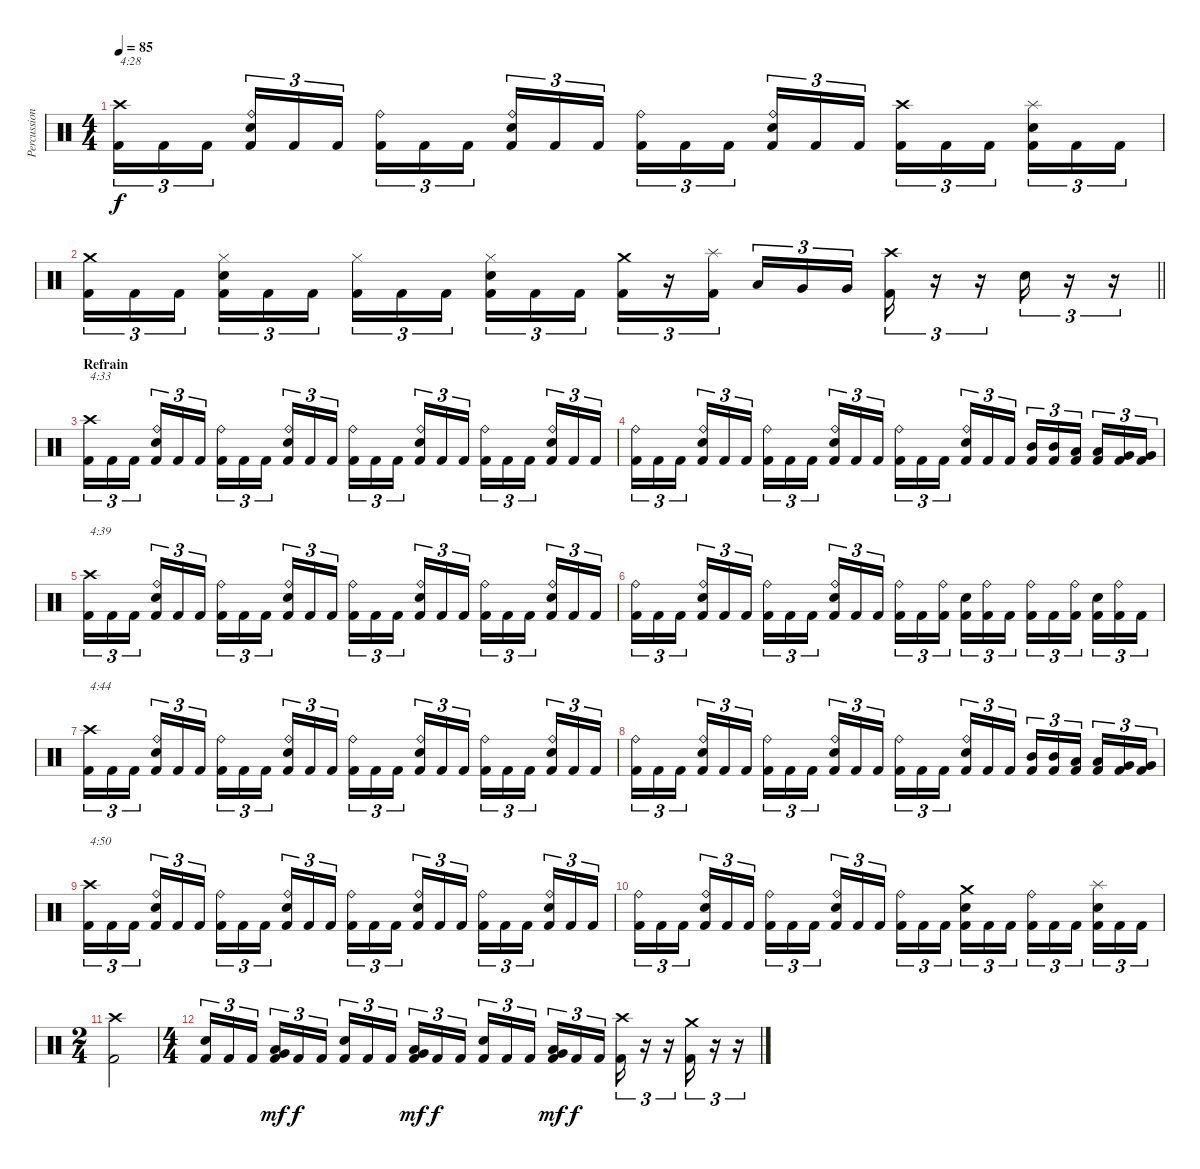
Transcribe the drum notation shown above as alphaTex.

\track ("Percussion" "Percussion") {instrument percussion}
\staff {score}
\articulation defaults
\ts (4 4)
\tempo 85
\clef neutral
\ks c
("Crash high (hit)" "Kick (hit) 2").16{tu (3 2) txt "4:28" dy f} "Kick (hit) 2".16{tu (3 2)} "Kick (hit) 2".16{tu (3 2)} ("Ride (bell)" "Electric Snare (hit)" "Kick (hit) 2").16{tu (3 2)} "Kick (hit) 2".16{tu (3 2)} "Kick (hit) 2".16{tu (3 2)} ("Ride (bell)" "Kick (hit) 2").16{tu (3 2)} "Kick (hit) 2".16{tu (3 2)} "Kick (hit) 2".16{tu (3 2)} ("Ride (bell)" "Electric Snare (hit)" "Kick (hit) 2").16{tu (3 2)} "Kick (hit) 2".16{tu (3 2)} "Kick (hit) 2".16{tu (3 2)} ("Ride (bell)" "Kick (hit) 2").16{tu (3 2)} "Kick (hit) 2".16{tu (3 2)} "Kick (hit) 2".16{tu (3 2)} ("Ride (bell)" "Electric Snare (hit)" "Kick (hit) 2").16{tu (3 2)} "Kick (hit) 2".16{tu (3 2)} "Kick (hit) 2".16{tu (3 2)} ("Crash high (hit)" "Kick (hit) 2").16{tu (3 2)} "Kick (hit) 2".16{tu (3 2)} "Kick (hit) 2".16{tu (3 2)} ("Splash (hit)" "Electric Snare (hit)" "Kick (hit) 2").16{tu (3 2)} "Kick (hit) 2".16{tu (3 2)} "Kick (hit) 2".16{tu (3 2)} |
\barLineRight lightlight
("Crash medium (hit)" "Kick (hit) 2").16{tu (3 2)} "Kick (hit) 2".16{tu (3 2)} "Kick (hit) 2".16{tu (3 2)} ("Hi-Hat (closed)" "Electric Snare (hit)" "Kick (hit) 2").16{tu (3 2)} "Kick (hit) 2".16{tu (3 2)} "Kick (hit) 2".16{tu (3 2)} ("Hi-Hat (closed)" "Kick (hit) 2").16{tu (3 2)} "Kick (hit) 2".16{tu (3 2)} "Kick (hit) 2".16{tu (3 2)} ("Hi-Hat (closed)" "Electric Snare (hit)" "Kick (hit) 2").16{tu (3 2)} "Kick (hit) 2".16{tu (3 2)} "Kick (hit) 2".16{tu (3 2)} ("Crash medium (hit)" "Kick (hit) 2").16{tu (3 2)} r.16{tu (3 2)} ("Splash (hit)" "Kick (hit) 2").16{tu (3 2)} "Low Tom (hit)".16{tu (3 2)} "Very Low Tom (hit)".16{tu (3 2)} "Very Low Tom (hit)".16{tu (3 2)} ("Crash high (hit)" "Kick (hit) 2").16{tu (3 2)} r.16{tu (3 2)} r.16{tu (3 2)} "Electric Snare (hit)".16{tu (3 2)} r.16{tu (3 2)} r.16{tu (3 2)} |
\section ("" "Refrain")
("Crash high (hit)" "Kick (hit) 2").16{tu (3 2) txt "4:33"} "Kick (hit) 2".16{tu (3 2)} "Kick (hit) 2".16{tu (3 2)} ("Ride (bell)" "Electric Snare (hit)" "Kick (hit) 2").16{tu (3 2)} "Kick (hit) 2".16{tu (3 2)} "Kick (hit) 2".16{tu (3 2)} ("Ride (bell)" "Kick (hit) 2").16{tu (3 2)} "Kick (hit) 2".16{tu (3 2)} "Kick (hit) 2".16{tu (3 2)} ("Ride (bell)" "Electric Snare (hit)" "Kick (hit) 2").16{tu (3 2)} "Kick (hit) 2".16{tu (3 2)} "Kick (hit) 2".16{tu (3 2)} ("Ride (bell)" "Kick (hit) 2").16{tu (3 2)} "Kick (hit) 2".16{tu (3 2)} "Kick (hit) 2".16{tu (3 2)} ("Ride (bell)" "Electric Snare (hit)" "Kick (hit) 2").16{tu (3 2)} "Kick (hit) 2".16{tu (3 2)} "Kick (hit) 2".16{tu (3 2)} ("Ride (bell)" "Kick (hit) 2").16{tu (3 2)} "Kick (hit) 2".16{tu (3 2)} "Kick (hit) 2".16{tu (3 2)} ("Ride (bell)" "Electric Snare (hit)" "Kick (hit) 2").16{tu (3 2)} "Kick (hit) 2".16{tu (3 2)} "Kick (hit) 2".16{tu (3 2)} |
("Ride (bell)" "Kick (hit) 2").16{tu (3 2)} "Kick (hit) 2".16{tu (3 2)} "Kick (hit) 2".16{tu (3 2)} ("Ride (bell)" "Electric Snare (hit)" "Kick (hit) 2").16{tu (3 2)} "Kick (hit) 2".16{tu (3 2)} "Kick (hit) 2".16{tu (3 2)} ("Ride (bell)" "Kick (hit) 2").16{tu (3 2)} "Kick (hit) 2".16{tu (3 2)} "Kick (hit) 2".16{tu (3 2)} ("Ride (bell)" "Electric Snare (hit)" "Kick (hit) 2").16{tu (3 2)} "Kick (hit) 2".16{tu (3 2)} "Kick (hit) 2".16{tu (3 2)} ("Ride (bell)" "Kick (hit) 2").16{tu (3 2)} "Kick (hit) 2".16{tu (3 2)} "Kick (hit) 2".16{tu (3 2)} ("Ride (bell)" "Electric Snare (hit)" "Kick (hit) 2").16{tu (3 2)} "Kick (hit) 2".16{tu (3 2)} "Kick (hit) 2".16{tu (3 2)} ("Mid Tom (hit)" "Kick (hit) 2").16{tu (3 2)} ("Mid Tom (hit)" "Kick (hit) 2").16{tu (3 2)} ("Low Tom (hit)" "Kick (hit) 2").16{tu (3 2)} ("Low Tom (hit)" "Kick (hit) 2").16{tu (3 2)} ("Very Low Tom (hit)" "Kick (hit) 2").16{tu (3 2)} ("Very Low Tom (hit)" "Kick (hit) 2").16{tu (3 2)} |
("Crash high (hit)" "Kick (hit) 2").16{tu (3 2) txt "4:39"} "Kick (hit) 2".16{tu (3 2)} "Kick (hit) 2".16{tu (3 2)} ("Ride (bell)" "Electric Snare (hit)" "Kick (hit) 2").16{tu (3 2)} "Kick (hit) 2".16{tu (3 2)} "Kick (hit) 2".16{tu (3 2)} ("Ride (bell)" "Kick (hit) 2").16{tu (3 2)} "Kick (hit) 2".16{tu (3 2)} "Kick (hit) 2".16{tu (3 2)} ("Ride (bell)" "Electric Snare (hit)" "Kick (hit) 2").16{tu (3 2)} "Kick (hit) 2".16{tu (3 2)} "Kick (hit) 2".16{tu (3 2)} ("Ride (bell)" "Kick (hit) 2").16{tu (3 2)} "Kick (hit) 2".16{tu (3 2)} "Kick (hit) 2".16{tu (3 2)} ("Ride (bell)" "Electric Snare (hit)" "Kick (hit) 2").16{tu (3 2)} "Kick (hit) 2".16{tu (3 2)} "Kick (hit) 2".16{tu (3 2)} ("Ride (bell)" "Kick (hit) 2").16{tu (3 2)} "Kick (hit) 2".16{tu (3 2)} "Kick (hit) 2".16{tu (3 2)} ("Ride (bell)" "Electric Snare (hit)" "Kick (hit) 2").16{tu (3 2)} "Kick (hit) 2".16{tu (3 2)} "Kick (hit) 2".16{tu (3 2)} |
("Ride (bell)" "Kick (hit) 2").16{tu (3 2)} "Kick (hit) 2".16{tu (3 2)} "Kick (hit) 2".16{tu (3 2)} ("Ride (bell)" "Electric Snare (hit)" "Kick (hit) 2").16{tu (3 2)} "Kick (hit) 2".16{tu (3 2)} "Kick (hit) 2".16{tu (3 2)} ("Ride (bell)" "Kick (hit) 2").16{tu (3 2)} "Kick (hit) 2".16{tu (3 2)} "Kick (hit) 2".16{tu (3 2)} ("Ride (bell)" "Electric Snare (hit)" "Kick (hit) 2").16{tu (3 2)} "Kick (hit) 2".16{tu (3 2)} "Kick (hit) 2".16{tu (3 2)} ("Ride (bell)" "Kick (hit) 2").16{tu (3 2)} "Kick (hit) 2".16{tu (3 2)} ("Ride (bell)" "Kick (hit) 2").16{tu (3 2)} ("Electric Snare (hit)" "Kick (hit) 2").16{tu (3 2)} ("Ride (bell)" "Kick (hit) 2").16{tu (3 2)} "Kick (hit) 2".16{tu (3 2)} ("Ride (bell)" "Kick (hit) 2").16{tu (3 2)} "Kick (hit) 2".16{tu (3 2)} ("Ride (bell)" "Kick (hit) 2").16{tu (3 2)} ("Electric Snare (hit)" "Kick (hit) 2").16{tu (3 2)} ("Ride (bell)" "Kick (hit) 2").16{tu (3 2)} "Kick (hit) 2".16{tu (3 2)} |
("Crash high (hit)" "Kick (hit) 2").16{tu (3 2) txt "4:44"} "Kick (hit) 2".16{tu (3 2)} "Kick (hit) 2".16{tu (3 2)} ("Ride (bell)" "Electric Snare (hit)" "Kick (hit) 2").16{tu (3 2)} "Kick (hit) 2".16{tu (3 2)} "Kick (hit) 2".16{tu (3 2)} ("Ride (bell)" "Kick (hit) 2").16{tu (3 2)} "Kick (hit) 2".16{tu (3 2)} "Kick (hit) 2".16{tu (3 2)} ("Ride (bell)" "Electric Snare (hit)" "Kick (hit) 2").16{tu (3 2)} "Kick (hit) 2".16{tu (3 2)} "Kick (hit) 2".16{tu (3 2)} ("Ride (bell)" "Kick (hit) 2").16{tu (3 2)} "Kick (hit) 2".16{tu (3 2)} "Kick (hit) 2".16{tu (3 2)} ("Ride (bell)" "Electric Snare (hit)" "Kick (hit) 2").16{tu (3 2)} "Kick (hit) 2".16{tu (3 2)} "Kick (hit) 2".16{tu (3 2)} ("Ride (bell)" "Kick (hit) 2").16{tu (3 2)} "Kick (hit) 2".16{tu (3 2)} "Kick (hit) 2".16{tu (3 2)} ("Ride (bell)" "Electric Snare (hit)" "Kick (hit) 2").16{tu (3 2)} "Kick (hit) 2".16{tu (3 2)} "Kick (hit) 2".16{tu (3 2)} |
("Ride (bell)" "Kick (hit) 2").16{tu (3 2)} "Kick (hit) 2".16{tu (3 2)} "Kick (hit) 2".16{tu (3 2)} ("Ride (bell)" "Electric Snare (hit)" "Kick (hit) 2").16{tu (3 2)} "Kick (hit) 2".16{tu (3 2)} "Kick (hit) 2".16{tu (3 2)} ("Ride (bell)" "Kick (hit) 2").16{tu (3 2)} "Kick (hit) 2".16{tu (3 2)} "Kick (hit) 2".16{tu (3 2)} ("Ride (bell)" "Electric Snare (hit)" "Kick (hit) 2").16{tu (3 2)} "Kick (hit) 2".16{tu (3 2)} "Kick (hit) 2".16{tu (3 2)} ("Ride (bell)" "Kick (hit) 2").16{tu (3 2)} "Kick (hit) 2".16{tu (3 2)} "Kick (hit) 2".16{tu (3 2)} ("Ride (bell)" "Electric Snare (hit)" "Kick (hit) 2").16{tu (3 2)} "Kick (hit) 2".16{tu (3 2)} "Kick (hit) 2".16{tu (3 2)} ("Mid Tom (hit)" "Kick (hit) 2").16{tu (3 2)} ("Mid Tom (hit)" "Kick (hit) 2").16{tu (3 2)} ("Low Tom (hit)" "Kick (hit) 2").16{tu (3 2)} ("Low Tom (hit)" "Kick (hit) 2").16{tu (3 2)} ("Very Low Tom (hit)" "Kick (hit) 2").16{tu (3 2)} ("Very Low Tom (hit)" "Kick (hit) 2").16{tu (3 2)} |
("Crash high (hit)" "Kick (hit) 2").16{tu (3 2) txt "4:50"} "Kick (hit) 2".16{tu (3 2)} "Kick (hit) 2".16{tu (3 2)} ("Ride (bell)" "Electric Snare (hit)" "Kick (hit) 2").16{tu (3 2)} "Kick (hit) 2".16{tu (3 2)} "Kick (hit) 2".16{tu (3 2)} ("Ride (bell)" "Kick (hit) 2").16{tu (3 2)} "Kick (hit) 2".16{tu (3 2)} "Kick (hit) 2".16{tu (3 2)} ("Ride (bell)" "Electric Snare (hit)" "Kick (hit) 2").16{tu (3 2)} "Kick (hit) 2".16{tu (3 2)} "Kick (hit) 2".16{tu (3 2)} ("Ride (bell)" "Kick (hit) 2").16{tu (3 2)} "Kick (hit) 2".16{tu (3 2)} "Kick (hit) 2".16{tu (3 2)} ("Ride (bell)" "Electric Snare (hit)" "Kick (hit) 2").16{tu (3 2)} "Kick (hit) 2".16{tu (3 2)} "Kick (hit) 2".16{tu (3 2)} ("Ride (bell)" "Kick (hit) 2").16{tu (3 2)} "Kick (hit) 2".16{tu (3 2)} "Kick (hit) 2".16{tu (3 2)} ("Ride (bell)" "Electric Snare (hit)" "Kick (hit) 2").16{tu (3 2)} "Kick (hit) 2".16{tu (3 2)} "Kick (hit) 2".16{tu (3 2)} |
("Ride (bell)" "Kick (hit) 2").16{tu (3 2)} "Kick (hit) 2".16{tu (3 2)} "Kick (hit) 2".16{tu (3 2)} ("Ride (bell)" "Electric Snare (hit)" "Kick (hit) 2").16{tu (3 2)} "Kick (hit) 2".16{tu (3 2)} "Kick (hit) 2".16{tu (3 2)} ("Ride (bell)" "Kick (hit) 2").16{tu (3 2)} "Kick (hit) 2".16{tu (3 2)} "Kick (hit) 2".16{tu (3 2)} ("Ride (bell)" "Electric Snare (hit)" "Kick (hit) 2").16{tu (3 2)} "Kick (hit) 2".16{tu (3 2)} "Kick (hit) 2".16{tu (3 2)} ("Ride (bell)" "Kick (hit) 2").16{tu (3 2)} "Kick (hit) 2".16{tu (3 2)} "Kick (hit) 2".16{tu (3 2)} ("Crash medium (hit)" "Electric Snare (hit)" "Kick (hit) 2").16{tu (3 2)} "Kick (hit) 2".16{tu (3 2)} "Kick (hit) 2".16{tu (3 2)} ("Ride (bell)" "Kick (hit) 2").16{tu (3 2)} "Kick (hit) 2".16{tu (3 2)} "Kick (hit) 2".16{tu (3 2)} ("Splash (hit)" "Electric Snare (hit)" "Kick (hit) 2").16{tu (3 2)} "Kick (hit) 2".16{tu (3 2)} "Kick (hit) 2".16{tu (3 2)} |
\ts (2 4)
("Crash high (hit)" "Kick (hit) 2").2 |
\ts (4 4)
("Electric Snare (hit)" "Kick (hit) 2").16{tu (3 2)} "Kick (hit) 2".16{tu (3 2)} "Kick (hit) 2".16{tu (3 2)} ("Low Floor Tom (hit)" "Very Low Tom (hit)" "Kick (hit) 2").16{tu (3 2) dy mf} "Kick (hit) 2".16{tu (3 2) dy f} "Kick (hit) 2".16{tu (3 2)} ("Electric Snare (hit)" "Kick (hit) 2").16{tu (3 2)} "Kick (hit) 2".16{tu (3 2)} "Kick (hit) 2".16{tu (3 2)} ("Low Floor Tom (hit)" "Very Low Tom (hit)" "Kick (hit) 2").16{tu (3 2) dy mf} "Kick (hit) 2".16{tu (3 2) dy f} "Kick (hit) 2".16{tu (3 2)} ("Electric Snare (hit)" "Kick (hit) 2").16{tu (3 2)} "Kick (hit) 2".16{tu (3 2)} "Kick (hit) 2".16{tu (3 2)} ("Low Floor Tom (hit)" "Very Low Tom (hit)" "Kick (hit) 2").16{tu (3 2) dy mf} "Kick (hit) 2".16{tu (3 2) dy f} "Kick (hit) 2".16{tu (3 2)} ("Crash high (hit)" "Kick (hit) 2").16{tu (3 2)} r.16{tu (3 2)} r.16{tu (3 2)} ("Crash medium (hit)" "Kick (hit) 2").16{tu (3 2)} r.16{tu (3 2)} r.16{tu (3 2)}
